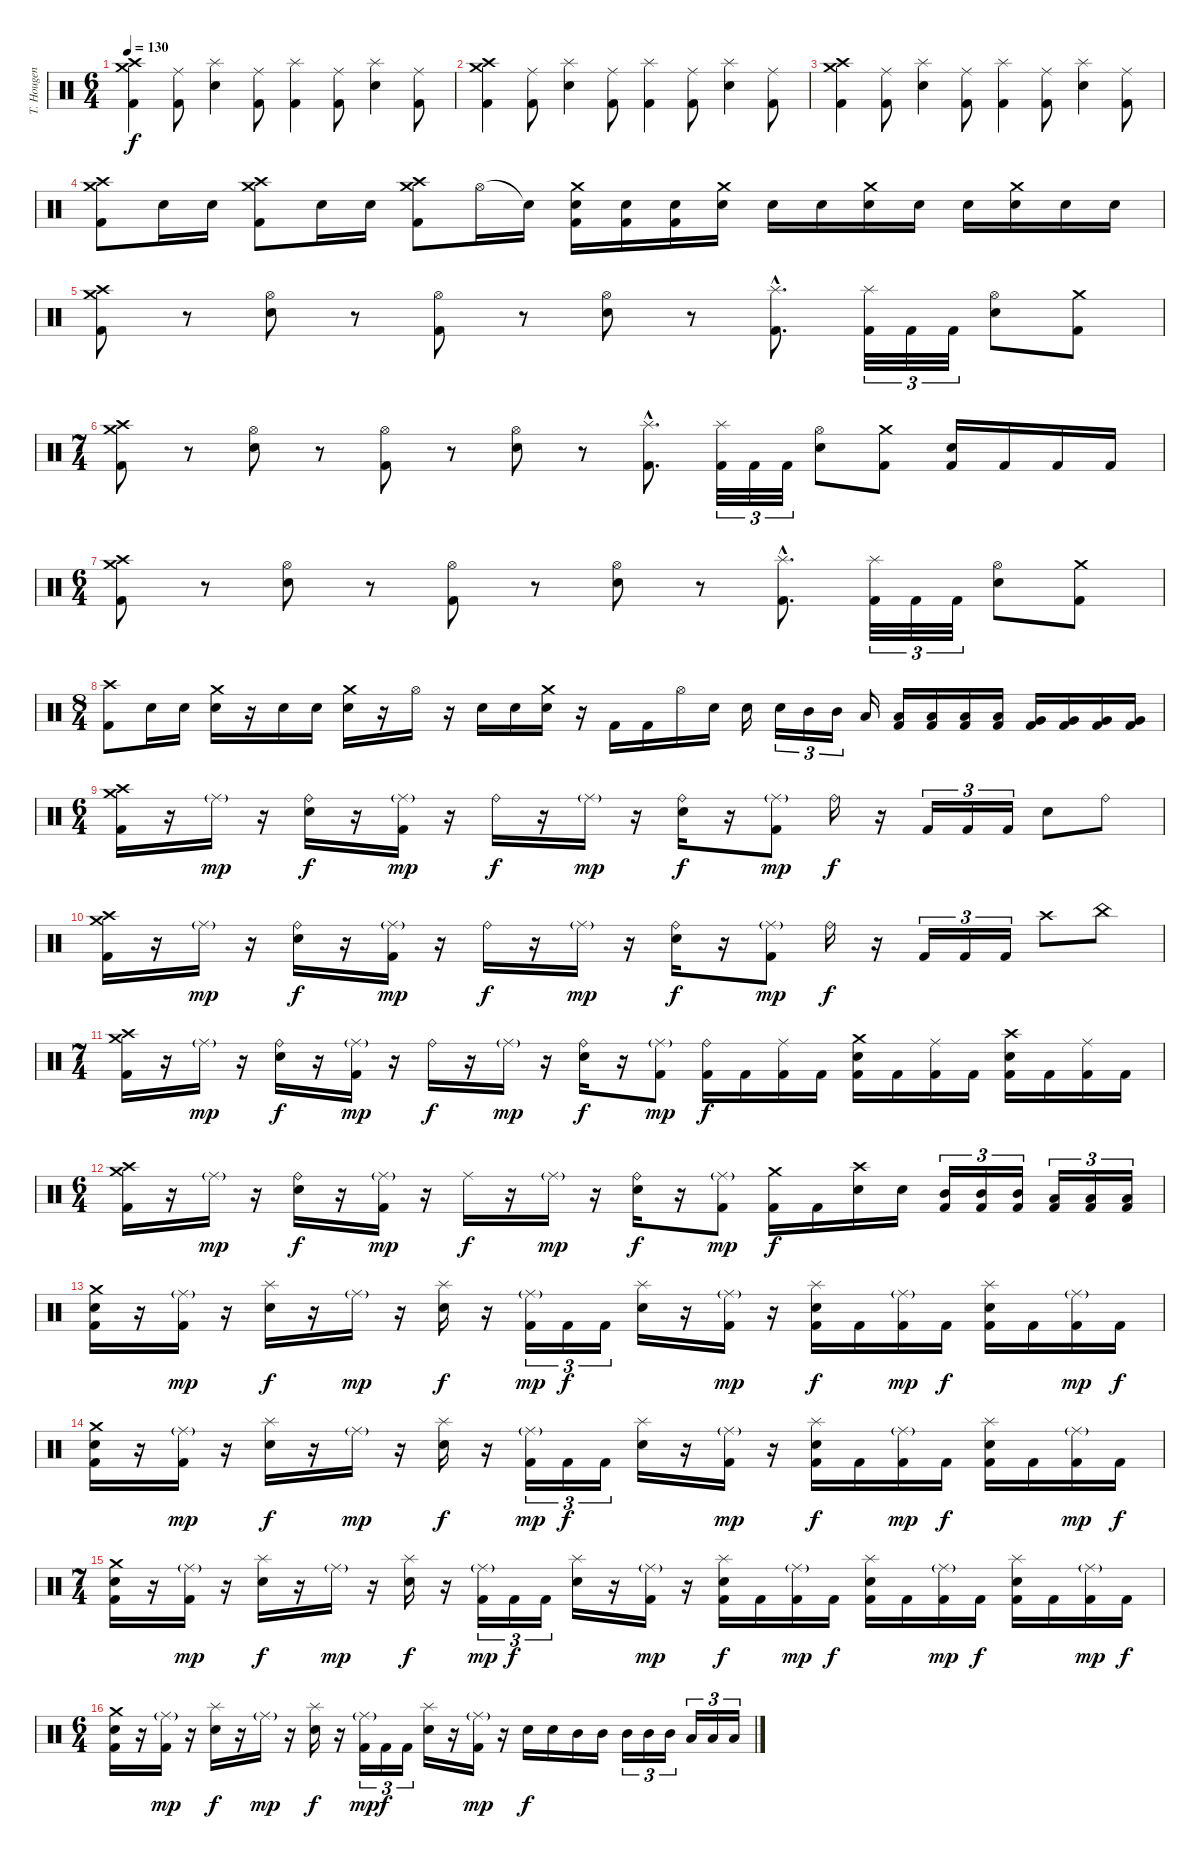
\track ("T. Hougen - Drums" "T. Hougen ") {instrument percussion}
\staff {score}
\articulation defaults
\ts (6 4)
\tempo 130
\clef neutral
\ks c
("Crash medium (hit)" "Crash high (hit)" "Kick (hit) 2").4{dy f} ("Ride (middle)" "Kick (hit) 2").8 ("Splash (hit)" "Electric Snare (hit)").4 ("Ride (middle)" "Kick (hit) 2").8 ("Splash (hit)" "Kick (hit) 2").4 ("Ride (middle)" "Kick (hit) 2").8 ("Splash (hit)" "Electric Snare (hit)").4 ("Ride (middle)" "Kick (hit) 2").8 |
("Crash medium (hit)" "Crash high (hit)" "Kick (hit) 2").4 ("Ride (middle)" "Kick (hit) 2").8 ("Splash (hit)" "Electric Snare (hit)").4 ("Ride (middle)" "Kick (hit) 2").8 ("Splash (hit)" "Kick (hit) 2").4 ("Ride (middle)" "Kick (hit) 2").8 ("Splash (hit)" "Electric Snare (hit)").4 ("Ride (middle)" "Kick (hit) 2").8 |
("Crash medium (hit)" "Crash high (hit)" "Kick (hit) 2").4 ("Ride (middle)" "Kick (hit) 2").8 ("Splash (hit)" "Electric Snare (hit)").4 ("Ride (middle)" "Kick (hit) 2").8 ("Splash (hit)" "Kick (hit) 2").4 ("Ride (middle)" "Kick (hit) 2").8 ("Splash (hit)" "Electric Snare (hit)").4 ("Ride (middle)" "Kick (hit) 2").8 |
("Crash medium (hit)" "Crash high (hit)" "Kick (hit) 2").8 "Electric Snare (hit)".16 "Electric Snare (hit)".16 ("Crash medium (hit)" "Crash high (hit)" "Kick (hit) 2").8 "Electric Snare (hit)".16 "Electric Snare (hit)".16 ("Crash medium (hit)" "Crash high (hit)" "Kick (hit) 2").8 "Hi-Hat (open)".16 "Electric Snare (hit)"{t}.16 ("Crash medium (hit)" "Electric Snare (hit)" "Kick (hit) 2").16 ("Electric Snare (hit)" "Kick (hit) 2").16 ("Electric Snare (hit)" "Kick (hit) 2").16 ("Crash medium (hit)" "Electric Snare (hit)").16 "Electric Snare (hit)".16 "Electric Snare (hit)".16 ("Crash medium (hit)" "Electric Snare (hit)").16 "Electric Snare (hit)".16 "Electric Snare (hit)".16 ("Crash medium (hit)" "Electric Snare (hit)").16 "Electric Snare (hit)".16 "Electric Snare (hit)".16 |
("Crash medium (hit)" "Crash high (hit)" "Kick (hit) 2").8 r.8 ("Hi-Hat (open)" "Electric Snare (hit)").8 r.8 ("Hi-Hat (open)" "Kick (hit) 2").8 r.8 ("Hi-Hat (open)" "Electric Snare (hit)").8 r.8 ("Splash (hit)"{hac} "Kick (hit) 2"{hac}).8{d} ("Splash (hit)" "Kick (hit) 2").32{tu (3 2)} "Kick (hit) 2".32{tu (3 2)} "Kick (hit) 2".32{tu (3 2)} ("Hi-Hat (open)" "Electric Snare (hit)").8 ("Crash medium (hit)" "Kick (hit) 2").8 |
\ts (7 4)
("Crash medium (hit)" "Crash high (hit)" "Kick (hit) 2").8 r.8 ("Hi-Hat (open)" "Electric Snare (hit)").8 r.8 ("Hi-Hat (open)" "Kick (hit) 2").8 r.8 ("Hi-Hat (open)" "Electric Snare (hit)").8 r.8 ("Splash (hit)"{hac} "Kick (hit) 2"{hac}).8{d} ("Splash (hit)" "Kick (hit) 2").32{tu (3 2)} "Kick (hit) 2".32{tu (3 2)} "Kick (hit) 2".32{tu (3 2)} ("Hi-Hat (open)" "Electric Snare (hit)").8 ("Crash medium (hit)" "Kick (hit) 2").8 ("Electric Snare (hit)" "Kick (hit) 2").16 "Kick (hit) 2".16 "Kick (hit) 2".16 "Kick (hit) 2".16 |
\ts (6 4)
("Crash medium (hit)" "Crash high (hit)" "Kick (hit) 2").8 r.8 ("Hi-Hat (open)" "Electric Snare (hit)").8 r.8 ("Hi-Hat (open)" "Kick (hit) 2").8 r.8 ("Hi-Hat (open)" "Electric Snare (hit)").8 r.8 ("Splash (hit)"{hac} "Kick (hit) 2"{hac}).8{d} ("Splash (hit)" "Kick (hit) 2").32{tu (3 2)} "Kick (hit) 2".32{tu (3 2)} "Kick (hit) 2".32{tu (3 2)} ("Hi-Hat (open)" "Electric Snare (hit)").8 ("Crash medium (hit)" "Kick (hit) 2").8 |
\ts (8 4)
("Crash high (hit)" "Kick (hit) 2").8 "Electric Snare (hit)".16 "Electric Snare (hit)".16 ("Crash medium (hit)" "Electric Snare (hit)").16 r.16 "Electric Snare (hit)".16 "Electric Snare (hit)".16 ("Crash medium (hit)" "Electric Snare (hit)").16 r.16 "Hi-Hat (open)".16 r.16 "Electric Snare (hit)".16 "Electric Snare (hit)".16 ("Crash medium (hit)" "Electric Snare (hit)").16 r.16 "Kick (hit) 2".16 "Kick (hit) 2".16 "Hi-Hat (open)".16 "Electric Snare (hit)".16 "Electric Snare (hit)".16 "Electric Snare (hit)".16{tu (3 2)} "Mid Tom (hit)".16{tu (3 2)} "Mid Tom (hit)".16{tu (3 2)} "Low Tom (hit)".16 ("Low Tom (hit)" "Kick (hit) 2").16 ("Low Tom (hit)" "Kick (hit) 2").16 ("Low Tom (hit)" "Kick (hit) 2").16 ("Low Tom (hit)" "Kick (hit) 2").16 ("Very Low Tom (hit)" "Kick (hit) 2").16 ("Very Low Tom (hit)" "Kick (hit) 2").16 ("Very Low Tom (hit)" "Kick (hit) 2").16 ("Very Low Tom (hit)" "Kick (hit) 2").16 |
\ts (6 4)
("Crash medium (hit)" "Crash high (hit)" "Kick (hit) 2").16 r.16 "Ride (middle)"{g}.16{dy mp} r.16 ("Ride (bell)" "Electric Snare (hit)").16{dy f} r.16 ("Ride (middle)"{g} "Kick (hit) 2").16{dy mp} r.16 "Ride (bell)".16{dy f} r.16 "Ride (middle)"{g}.16{dy mp} r.16 ("Ride (bell)" "Electric Snare (hit)").16{dy f} r.16 ("Ride (middle)"{g} "Kick (hit) 2").8{dy mp} "Ride (bell)".16{dy f} r.16 "Kick (hit) 2".16{tu (3 2)} "Kick (hit) 2".16{tu (3 2)} "Kick (hit) 2".16{tu (3 2)} "Electric Snare (hit)".8 "Ride (bell)".8 |
("Crash medium (hit)" "Crash high (hit)" "Kick (hit) 2").16 r.16 "Ride (middle)"{g}.16{dy mp} r.16 ("Ride (bell)" "Electric Snare (hit)").16{dy f} r.16 ("Ride (middle)"{g} "Kick (hit) 2").16{dy mp} r.16 "Ride (bell)".16{dy f} r.16 "Ride (middle)"{g}.16{dy mp} r.16 ("Ride (bell)" "Electric Snare (hit)").16{dy f} r.16 ("Ride (middle)"{g} "Kick (hit) 2").8{dy mp} "Ride (bell)".16{dy f} r.16 "Kick (hit) 2".16{tu (3 2)} "Kick (hit) 2".16{tu (3 2)} "Kick (hit) 2".16{tu (3 2)} "Crash high (hit)".8 "China (hit)".8 |
\ts (7 4)
("Crash medium (hit)" "Crash high (hit)" "Kick (hit) 2").16 r.16 "Ride (middle)"{g}.16{dy mp} r.16 ("Ride (bell)" "Electric Snare (hit)").16{dy f} r.16 ("Ride (middle)"{g} "Kick (hit) 2").16{dy mp} r.16 "Ride (bell)".16{dy f} r.16 "Ride (middle)"{g}.16{dy mp} r.16 ("Ride (bell)" "Electric Snare (hit)").16{dy f} r.16 ("Ride (middle)"{g} "Kick (hit) 2").8{dy mp} ("Ride (bell)" "Kick (hit) 2").16{dy f} "Kick (hit) 2".16 ("Ride (middle)" "Kick (hit) 2").16 "Kick (hit) 2".16 ("Crash medium (hit)" "Electric Snare (hit)" "Kick (hit) 2").16 "Kick (hit) 2".16 ("Ride (middle)" "Kick (hit) 2").16 "Kick (hit) 2".16 ("Crash high (hit)" "Electric Snare (hit)" "Kick (hit) 2").16 "Kick (hit) 2".16 ("Ride (middle)" "Kick (hit) 2").16 "Kick (hit) 2".16 |
\ts (6 4)
("Crash medium (hit)" "Crash high (hit)" "Kick (hit) 2").16 r.16 "Ride (middle)"{g}.16{dy mp} r.16 ("Ride (bell)" "Electric Snare (hit)").16{dy f} r.16 ("Ride (middle)"{g} "Kick (hit) 2").16{dy mp} r.16 "Ride (middle)".16{dy f} r.16 "Ride (middle)"{g}.16{dy mp} r.16 ("Ride (bell)" "Electric Snare (hit)").16{dy f} r.16 ("Ride (middle)"{g} "Kick (hit) 2").8{dy mp} ("Crash medium (hit)" "Kick (hit) 2").16{dy f} "Kick (hit) 2".16 ("Crash high (hit)" "Electric Snare (hit)").16 "Electric Snare (hit)".16 ("Mid Tom (hit)" "Kick (hit) 2").16{tu (3 2)} ("Mid Tom (hit)" "Kick (hit) 2").16{tu (3 2)} ("Mid Tom (hit)" "Kick (hit) 2").16{tu (3 2)} ("Low Tom (hit)" "Kick (hit) 2").16{tu (3 2)} ("Low Tom (hit)" "Kick (hit) 2").16{tu (3 2)} ("Low Tom (hit)" "Kick (hit) 2").16{tu (3 2)} |
("Crash medium (hit)" "Electric Snare (hit)" "Kick (hit) 2").16 r.16 ("Ride (middle)"{g} "Kick (hit) 2").16{dy mp} r.16 ("Splash (hit)" "Electric Snare (hit)").16{dy f} r.16 "Ride (middle)"{g}.16{dy mp} r.16 ("Splash (hit)" "Electric Snare (hit)").16{dy f} r.16 ("Ride (middle)"{g} "Kick (hit) 2").16{tu (3 2) dy mp} "Kick (hit) 2".16{tu (3 2) dy f} "Kick (hit) 2".16{tu (3 2)} ("Splash (hit)" "Electric Snare (hit)").16 r.16 ("Ride (middle)"{g} "Kick (hit) 2").16{dy mp} r.16 ("Splash (hit)" "Electric Snare (hit)" "Kick (hit) 2").16{dy f} "Kick (hit) 2".16 ("Ride (middle)"{g} "Kick (hit) 2").16{dy mp} "Kick (hit) 2".16{dy f} ("Splash (hit)" "Electric Snare (hit)" "Kick (hit) 2").16 "Kick (hit) 2".16 ("Ride (middle)"{g} "Kick (hit) 2").16{dy mp} "Kick (hit) 2".16{dy f} |
("Crash medium (hit)" "Electric Snare (hit)" "Kick (hit) 2").16 r.16 ("Ride (middle)"{g} "Kick (hit) 2").16{dy mp} r.16 ("Splash (hit)" "Electric Snare (hit)").16{dy f} r.16 "Ride (middle)"{g}.16{dy mp} r.16 ("Splash (hit)" "Electric Snare (hit)").16{dy f} r.16 ("Ride (middle)"{g} "Kick (hit) 2").16{tu (3 2) dy mp} "Kick (hit) 2".16{tu (3 2) dy f} "Kick (hit) 2".16{tu (3 2)} ("Splash (hit)" "Electric Snare (hit)").16 r.16 ("Ride (middle)"{g} "Kick (hit) 2").16{dy mp} r.16 ("Splash (hit)" "Electric Snare (hit)" "Kick (hit) 2").16{dy f} "Kick (hit) 2".16 ("Ride (middle)"{g} "Kick (hit) 2").16{dy mp} "Kick (hit) 2".16{dy f} ("Splash (hit)" "Electric Snare (hit)" "Kick (hit) 2").16 "Kick (hit) 2".16 ("Ride (middle)"{g} "Kick (hit) 2").16{dy mp} "Kick (hit) 2".16{dy f} |
\ts (7 4)
("Crash medium (hit)" "Electric Snare (hit)" "Kick (hit) 2").16 r.16 ("Ride (middle)"{g} "Kick (hit) 2").16{dy mp} r.16 ("Splash (hit)" "Electric Snare (hit)").16{dy f} r.16 "Ride (middle)"{g}.16{dy mp} r.16 ("Splash (hit)" "Electric Snare (hit)").16{dy f} r.16 ("Ride (middle)"{g} "Kick (hit) 2").16{tu (3 2) dy mp} "Kick (hit) 2".16{tu (3 2) dy f} "Kick (hit) 2".16{tu (3 2)} ("Splash (hit)" "Electric Snare (hit)").16 r.16 ("Ride (middle)"{g} "Kick (hit) 2").16{dy mp} r.16 ("Splash (hit)" "Electric Snare (hit)" "Kick (hit) 2").16{dy f} "Kick (hit) 2".16 ("Ride (middle)"{g} "Kick (hit) 2").16{dy mp} "Kick (hit) 2".16{dy f} ("Splash (hit)" "Electric Snare (hit)" "Kick (hit) 2").16 "Kick (hit) 2".16 ("Ride (middle)"{g} "Kick (hit) 2").16{dy mp} "Kick (hit) 2".16{dy f} ("Splash (hit)" "Electric Snare (hit)" "Kick (hit) 2").16 "Kick (hit) 2".16 ("Ride (middle)"{g} "Kick (hit) 2").16{dy mp} "Kick (hit) 2".16{dy f} |
\ts (6 4)
("Crash medium (hit)" "Electric Snare (hit)" "Kick (hit) 2").16 r.16 ("Ride (middle)"{g} "Kick (hit) 2").16{dy mp} r.16 ("Splash (hit)" "Electric Snare (hit)").16{dy f} r.16 "Ride (middle)"{g}.16{dy mp} r.16 ("Splash (hit)" "Electric Snare (hit)").16{dy f} r.16 ("Ride (middle)"{g} "Kick (hit) 2").16{tu (3 2) dy mp} "Kick (hit) 2".16{tu (3 2) dy f} "Kick (hit) 2".16{tu (3 2)} ("Splash (hit)" "Electric Snare (hit)").16 r.16 ("Ride (middle)"{g} "Kick (hit) 2").16{dy mp} r.16 "Electric Snare (hit)".16{dy f} "Electric Snare (hit)".16 "Mid Tom (hit)".16 "Mid Tom (hit)".16 "Mid Tom (hit)".16{tu (3 2)} "Mid Tom (hit)".16{tu (3 2)} "Mid Tom (hit)".16{tu (3 2)} "Low Tom (hit)".16{tu (3 2)} "Low Tom (hit)".16{tu (3 2)} "Low Tom (hit)".16{tu (3 2)}
